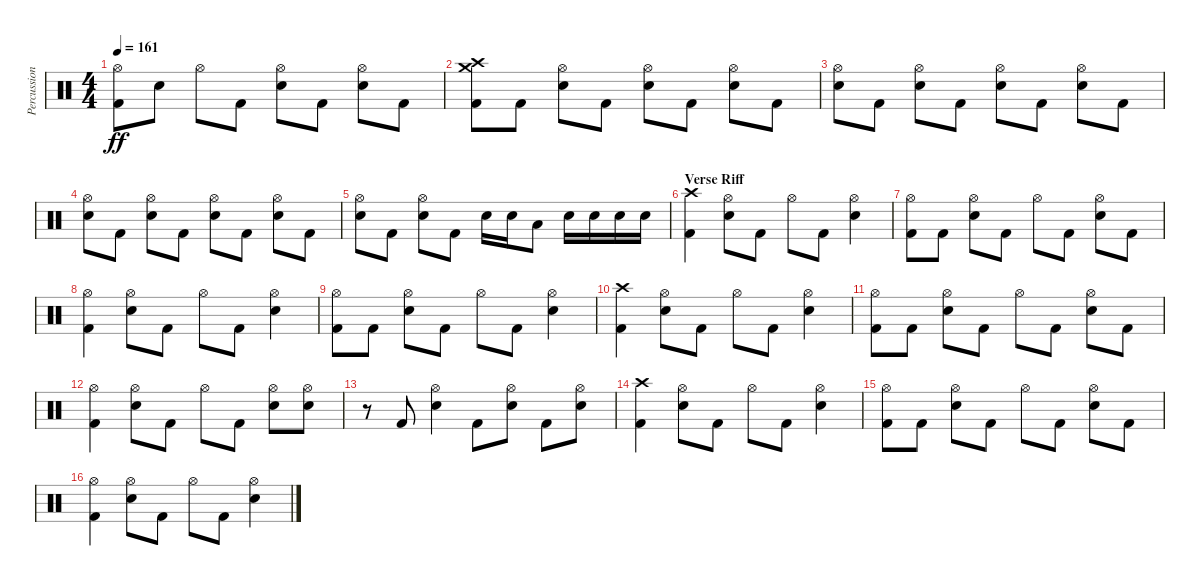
\track ("Percussion" "Percussion") {instrument percussion}
\staff {score}
\articulation defaults
\ts (4 4)
\tempo 161
\clef neutral
\ks c
("Hi-Hat (open)" "Kick (hit) 2").8{dy ff} "Electric Snare (hit)".8 "Hi-Hat (open)".8 "Kick (hit) 2".8 ("Hi-Hat (open)" "Electric Snare (hit)").8 "Kick (hit) 2".8 ("Hi-Hat (open)" "Electric Snare (hit)").8 "Kick (hit) 2".8 |
("Crash medium (hit)" "Crash high (hit)" "Kick (hit) 2").8 "Kick (hit) 2".8 ("Hi-Hat (open)" "Electric Snare (hit)").8 "Kick (hit) 2".8 ("Hi-Hat (open)" "Electric Snare (hit)").8 "Kick (hit) 2".8 ("Hi-Hat (open)" "Electric Snare (hit)").8 "Kick (hit) 2".8 |
("Hi-Hat (open)" "Electric Snare (hit)").8 "Kick (hit) 2".8 ("Hi-Hat (open)" "Electric Snare (hit)").8 "Kick (hit) 2".8 ("Hi-Hat (open)" "Electric Snare (hit)").8 "Kick (hit) 2".8 ("Hi-Hat (open)" "Electric Snare (hit)").8 "Kick (hit) 2".8 |
("Hi-Hat (open)" "Electric Snare (hit)").8 "Kick (hit) 2".8 ("Hi-Hat (open)" "Electric Snare (hit)").8 "Kick (hit) 2".8 ("Hi-Hat (open)" "Electric Snare (hit)").8 "Kick (hit) 2".8 ("Hi-Hat (open)" "Electric Snare (hit)").8 "Kick (hit) 2".8 |
("Hi-Hat (open)" "Electric Snare (hit)").8 "Kick (hit) 2".8 ("Hi-Hat (open)" "Electric Snare (hit)").8 "Kick (hit) 2".8 "Electric Snare (hit)".16 "Electric Snare (hit)".16 "Low Tom (hit)".8 "Electric Snare (hit)".16 "Electric Snare (hit)".16 "Electric Snare (hit)".16 "Electric Snare (hit)".16 |
\section ("" "Verse Riff")
("Crash high (hit)" "Kick (hit) 2").4 ("Hi-Hat (open)" "Electric Snare (hit)").8 "Kick (hit) 2".8 "Hi-Hat (open)".8 "Kick (hit) 2".8 ("Hi-Hat (open)" "Electric Snare (hit)").4 |
("Hi-Hat (open)" "Kick (hit) 2").8 "Kick (hit) 2".8 ("Hi-Hat (open)" "Electric Snare (hit)").8 "Kick (hit) 2".8 "Hi-Hat (open)".8 "Kick (hit) 2".8 ("Hi-Hat (open)" "Electric Snare (hit)").8 "Kick (hit) 2".8 |
("Hi-Hat (open)" "Kick (hit) 2").4 ("Hi-Hat (open)" "Electric Snare (hit)").8 "Kick (hit) 2".8 "Hi-Hat (open)".8 "Kick (hit) 2".8 ("Hi-Hat (open)" "Electric Snare (hit)").4 |
("Hi-Hat (open)" "Kick (hit) 2").8 "Kick (hit) 2".8 ("Hi-Hat (open)" "Electric Snare (hit)").8 "Kick (hit) 2".8 "Hi-Hat (open)".8 "Kick (hit) 2".8 ("Hi-Hat (open)" "Electric Snare (hit)").4 |
("Crash high (hit)" "Kick (hit) 2").4 ("Hi-Hat (open)" "Electric Snare (hit)").8 "Kick (hit) 2".8 "Hi-Hat (open)".8 "Kick (hit) 2".8 ("Hi-Hat (open)" "Electric Snare (hit)").4 |
("Hi-Hat (open)" "Kick (hit) 2").8 "Kick (hit) 2".8 ("Hi-Hat (open)" "Electric Snare (hit)").8 "Kick (hit) 2".8 "Hi-Hat (open)".8 "Kick (hit) 2".8 ("Hi-Hat (open)" "Electric Snare (hit)").8 "Kick (hit) 2".8 |
("Hi-Hat (open)" "Kick (hit) 2").4 ("Hi-Hat (open)" "Electric Snare (hit)").8 "Kick (hit) 2".8 "Hi-Hat (open)".8 "Kick (hit) 2".8 ("Hi-Hat (open)" "Electric Snare (hit)").8 ("Hi-Hat (open)" "Electric Snare (hit)").8 |
r.8 "Kick (hit) 2".8 ("Hi-Hat (open)" "Electric Snare (hit)").4 "Kick (hit) 2".8 ("Hi-Hat (open)" "Electric Snare (hit)").8 "Kick (hit) 2".8 ("Hi-Hat (open)" "Electric Snare (hit)").8 |
("Crash high (hit)" "Kick (hit) 2").4 ("Hi-Hat (open)" "Electric Snare (hit)").8 "Kick (hit) 2".8 "Hi-Hat (open)".8 "Kick (hit) 2".8 ("Hi-Hat (open)" "Electric Snare (hit)").4 |
("Hi-Hat (open)" "Kick (hit) 2").8 "Kick (hit) 2".8 ("Hi-Hat (open)" "Electric Snare (hit)").8 "Kick (hit) 2".8 "Hi-Hat (open)".8 "Kick (hit) 2".8 ("Hi-Hat (open)" "Electric Snare (hit)").8 "Kick (hit) 2".8 |
("Hi-Hat (open)" "Kick (hit) 2").4 ("Hi-Hat (open)" "Electric Snare (hit)").8 "Kick (hit) 2".8 "Hi-Hat (open)".8 "Kick (hit) 2".8 ("Hi-Hat (open)" "Electric Snare (hit)").4
